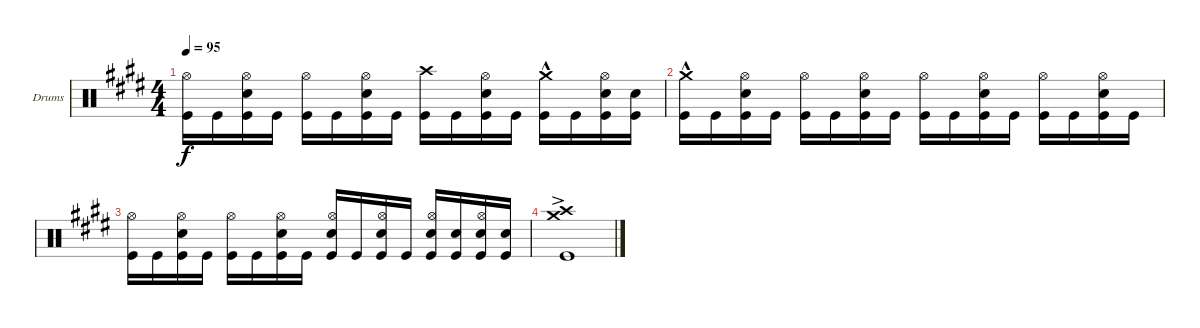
\bracketExtendMode groupsimilarinstruments
\firstSystemTrackNameOrientation horizontal
\otherSystemsTrackNameOrientation horizontal
\track ("Drumkit" "Drums") {instrument percussion}
\staff {score}
\articulation defaults
\ts (4 4)
\tempo 95
\clef neutral
\ks c#minor
("Kick (hit)" "Hi-Hat (open)").16{dy f} "Kick (hit)".16 ("Snare (hit) 2" "Kick (hit)" "Hi-Hat (open)").16 "Kick (hit)".16 ("Kick (hit)" "Hi-Hat (open)").16 "Kick (hit)".16 ("Snare (hit) 2" "Kick (hit)" "Hi-Hat (open)").16 "Kick (hit)".16 ("Kick (hit)" "Crash high (hit)").16 "Kick (hit)".16 ("Snare (hit) 2" "Kick (hit)" "Hi-Hat (open)").16 "Kick (hit)".16 ("Crash medium (hit)"{hac} "Kick (hit)").16 "Kick (hit)".16 ("Snare (hit) 2" "Kick (hit)" "Hi-Hat (open)").16 ("Kick (hit)" "Snare (hit) 2").16 |
("Crash medium (hit)"{hac} "Kick (hit)").16 "Kick (hit)".16 ("Snare (hit) 2" "Kick (hit)" "Hi-Hat (open)").16 "Kick (hit)".16 ("Kick (hit)" "Hi-Hat (open)").16 "Kick (hit)".16 ("Snare (hit) 2" "Kick (hit)" "Hi-Hat (open)").16 "Kick (hit)".16 ("Kick (hit)" "Hi-Hat (open)").16 "Kick (hit)".16 ("Snare (hit) 2" "Kick (hit)" "Hi-Hat (open)").16 "Kick (hit)".16 ("Kick (hit)" "Hi-Hat (open)").16 "Kick (hit)".16 ("Snare (hit) 2" "Kick (hit)" "Hi-Hat (open)").16 "Kick (hit)".16 |
("Kick (hit)" "Hi-Hat (open)").16 "Kick (hit)".16 ("Snare (hit) 2" "Kick (hit)" "Hi-Hat (open)").16 "Kick (hit)".16 ("Kick (hit)" "Hi-Hat (open)").16 "Kick (hit)".16 ("Snare (hit) 2" "Kick (hit)" "Hi-Hat (open)").16 "Kick (hit)".16 ("Snare (hit) 2" "Kick (hit)" "Hi-Hat (open)").16 "Kick (hit)".16 ("Snare (hit) 2" "Kick (hit)" "Hi-Hat (open)").16 "Kick (hit)".16 ("Snare (hit) 2" "Kick (hit)" "Hi-Hat (open)").16 ("Kick (hit)" "Snare (hit) 2").16 ("Snare (hit) 2" "Kick (hit)" "Hi-Hat (open)").16 ("Kick (hit)" "Snare (hit) 2").16 |
("Kick (hit)" "Crash high (hit)"{ac} "Crash medium (hit)"{ac}).1
